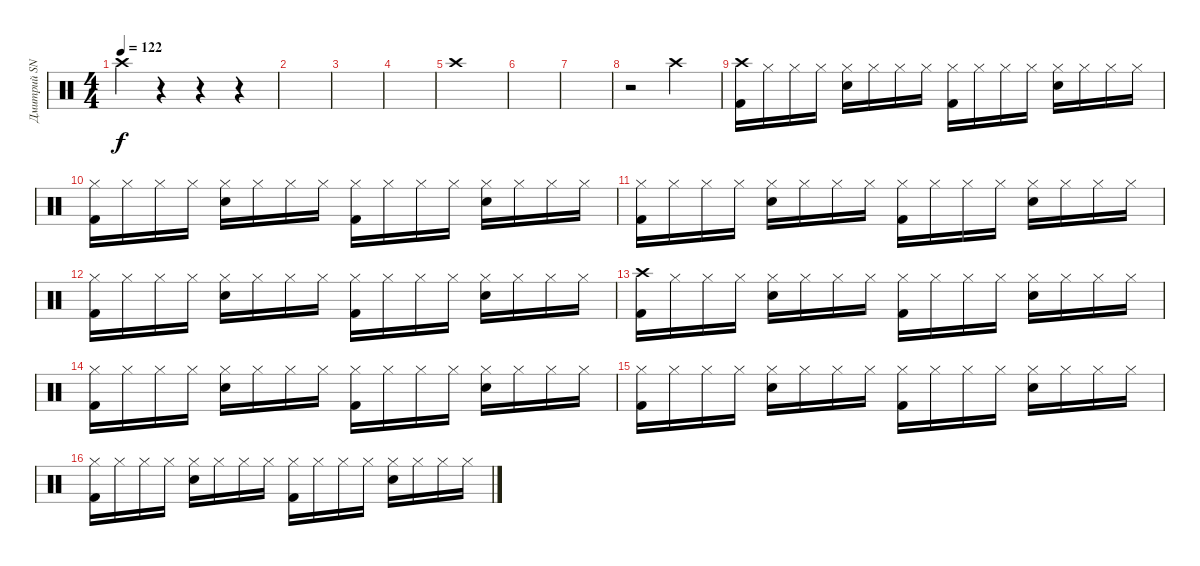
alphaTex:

\track ("Дмитрий SNAKE Хакимов" "Дмитрий SN") {instrument percussion}
\staff {score}
\articulation defaults
\ts (4 4)
\tempo 122
\clef neutral
\ks c "Crash high (hit)".4{dy f}
r.4 r.4 r.4 |
|
|
|
"Crash high (hit)".1 |
|
|
r.2 "Crash high (hit)".2 |
("Crash high (hit)" "Kick (hit) 2").16 "Hi-Hat (closed)".16 "Hi-Hat (closed)".16 "Hi-Hat (closed)".16 ("Hi-Hat (closed)" "Snare (hit) 2").16 "Hi-Hat (closed)".16 "Hi-Hat (closed)".16 "Hi-Hat (closed)".16 ("Hi-Hat (closed)" "Kick (hit) 2").16 "Hi-Hat (closed)".16 "Hi-Hat (closed)".16 "Hi-Hat (closed)".16 ("Hi-Hat (closed)" "Snare (hit) 2").16 "Hi-Hat (closed)".16 "Hi-Hat (closed)".16 "Hi-Hat (closed)".16 |
("Hi-Hat (closed)" "Kick (hit) 2").16 "Hi-Hat (closed)".16 "Hi-Hat (closed)".16 "Hi-Hat (closed)".16 ("Hi-Hat (closed)" "Snare (hit) 2").16 "Hi-Hat (closed)".16 "Hi-Hat (closed)".16 "Hi-Hat (closed)".16 ("Hi-Hat (closed)" "Kick (hit) 2").16 "Hi-Hat (closed)".16 "Hi-Hat (closed)".16 "Hi-Hat (closed)".16 ("Hi-Hat (closed)" "Snare (hit) 2").16 "Hi-Hat (closed)".16 "Hi-Hat (closed)".16 "Hi-Hat (closed)".16 |
("Hi-Hat (closed)" "Kick (hit) 2").16 "Hi-Hat (closed)".16 "Hi-Hat (closed)".16 "Hi-Hat (closed)".16 ("Hi-Hat (closed)" "Snare (hit) 2").16 "Hi-Hat (closed)".16 "Hi-Hat (closed)".16 "Hi-Hat (closed)".16 ("Hi-Hat (closed)" "Kick (hit) 2").16 "Hi-Hat (closed)".16 "Hi-Hat (closed)".16 "Hi-Hat (closed)".16 ("Hi-Hat (closed)" "Snare (hit) 2").16 "Hi-Hat (closed)".16 "Hi-Hat (closed)".16 "Hi-Hat (closed)".16 |
("Hi-Hat (closed)" "Kick (hit) 2").16 "Hi-Hat (closed)".16 "Hi-Hat (closed)".16 "Hi-Hat (closed)".16 ("Hi-Hat (closed)" "Snare (hit) 2").16 "Hi-Hat (closed)".16 "Hi-Hat (closed)".16 "Hi-Hat (closed)".16 ("Hi-Hat (closed)" "Kick (hit) 2").16 "Hi-Hat (closed)".16 "Hi-Hat (closed)".16 "Hi-Hat (closed)".16 ("Hi-Hat (closed)" "Snare (hit) 2").16 "Hi-Hat (closed)".16 "Hi-Hat (closed)".16 "Hi-Hat (closed)".16 |
("Crash high (hit)" "Kick (hit) 2").16 "Hi-Hat (closed)".16 "Hi-Hat (closed)".16 "Hi-Hat (closed)".16 ("Hi-Hat (closed)" "Snare (hit) 2").16 "Hi-Hat (closed)".16 "Hi-Hat (closed)".16 "Hi-Hat (closed)".16 ("Hi-Hat (closed)" "Kick (hit) 2").16 "Hi-Hat (closed)".16 "Hi-Hat (closed)".16 "Hi-Hat (closed)".16 ("Hi-Hat (closed)" "Snare (hit) 2").16 "Hi-Hat (closed)".16 "Hi-Hat (closed)".16 "Hi-Hat (closed)".16 |
("Hi-Hat (closed)" "Kick (hit) 2").16 "Hi-Hat (closed)".16 "Hi-Hat (closed)".16 "Hi-Hat (closed)".16 ("Hi-Hat (closed)" "Snare (hit) 2").16 "Hi-Hat (closed)".16 "Hi-Hat (closed)".16 "Hi-Hat (closed)".16 ("Hi-Hat (closed)" "Kick (hit) 2").16 "Hi-Hat (closed)".16 "Hi-Hat (closed)".16 "Hi-Hat (closed)".16 ("Hi-Hat (closed)" "Snare (hit) 2").16 "Hi-Hat (closed)".16 "Hi-Hat (closed)".16 "Hi-Hat (closed)".16 |
("Hi-Hat (closed)" "Kick (hit) 2").16 "Hi-Hat (closed)".16 "Hi-Hat (closed)".16 "Hi-Hat (closed)".16 ("Hi-Hat (closed)" "Snare (hit) 2").16 "Hi-Hat (closed)".16 "Hi-Hat (closed)".16 "Hi-Hat (closed)".16 ("Hi-Hat (closed)" "Kick (hit) 2").16 "Hi-Hat (closed)".16 "Hi-Hat (closed)".16 "Hi-Hat (closed)".16 ("Hi-Hat (closed)" "Snare (hit) 2").16 "Hi-Hat (closed)".16 "Hi-Hat (closed)".16 "Hi-Hat (closed)".16 |
("Hi-Hat (closed)" "Kick (hit) 2").16 "Hi-Hat (closed)".16 "Hi-Hat (closed)".16 "Hi-Hat (closed)".16 ("Hi-Hat (closed)" "Snare (hit) 2").16 "Hi-Hat (closed)".16 "Hi-Hat (closed)".16 "Hi-Hat (closed)".16 ("Hi-Hat (closed)" "Kick (hit) 2").16 "Hi-Hat (closed)".16 "Hi-Hat (closed)".16 "Hi-Hat (closed)".16 ("Hi-Hat (closed)" "Snare (hit) 2").16 "Hi-Hat (closed)".16 "Hi-Hat (closed)".16 "Hi-Hat (closed)".16
